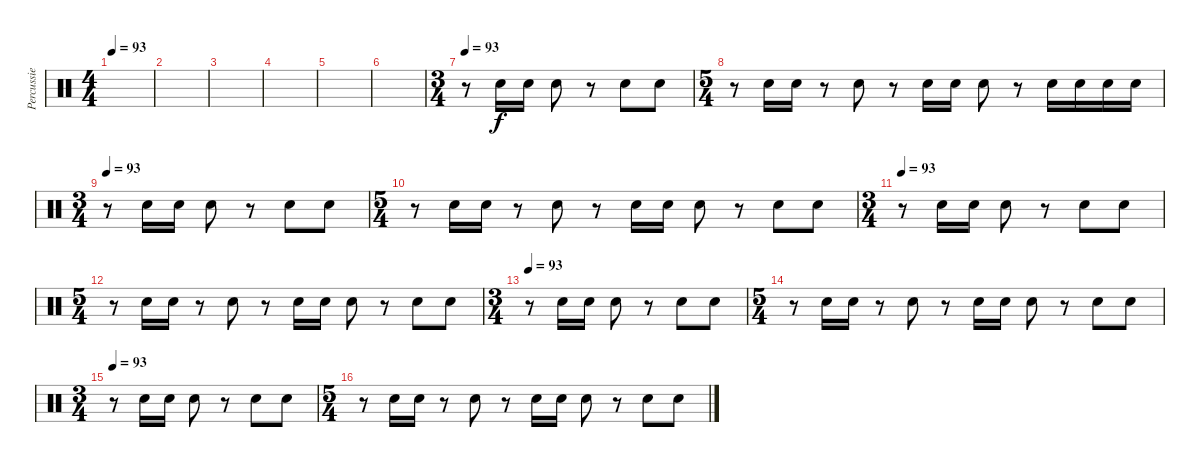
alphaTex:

\track ("Percussie" "Percussie") {instrument percussion}
\staff {score}
\articulation defaults
\ts (4 4)
\tempo 93
\clef neutral
\ks c
|
|
|
|
|
|
\ts (3 4)
\tempo 93
r.8 "Hand Clap (hit)".16 "Hand Clap (hit)".16 "Hand Clap (hit)".8 r.8 "Hand Clap (hit)".8 "Hand Clap (hit)".8 |
\ts (5 4)
r.8 "Hand Clap (hit)".16 "Hand Clap (hit)".16 r.8 "Hand Clap (hit)".8 r.8 "Hand Clap (hit)".16 "Hand Clap (hit)".16 "Hand Clap (hit)".8 r.8 "Hand Clap (hit)".16 "Hand Clap (hit)".16 "Hand Clap (hit)".16 "Hand Clap (hit)".16 |
\ts (3 4)
\tempo 93
r.8 "Hand Clap (hit)".16 "Hand Clap (hit)".16 "Hand Clap (hit)".8 r.8 "Hand Clap (hit)".8 "Hand Clap (hit)".8 |
\ts (5 4)
r.8 "Hand Clap (hit)".16 "Hand Clap (hit)".16 r.8 "Hand Clap (hit)".8 r.8 "Hand Clap (hit)".16 "Hand Clap (hit)".16 "Hand Clap (hit)".8 r.8 "Hand Clap (hit)".8 "Hand Clap (hit)".8 |
\ts (3 4)
\tempo 93
r.8 "Hand Clap (hit)".16 "Hand Clap (hit)".16 "Hand Clap (hit)".8 r.8 "Hand Clap (hit)".8 "Hand Clap (hit)".8 |
\ts (5 4)
r.8 "Hand Clap (hit)".16 "Hand Clap (hit)".16 r.8 "Hand Clap (hit)".8 r.8 "Hand Clap (hit)".16 "Hand Clap (hit)".16 "Hand Clap (hit)".8 r.8 "Hand Clap (hit)".8 "Hand Clap (hit)".8 |
\ts (3 4)
\tempo 93
r.8 "Hand Clap (hit)".16 "Hand Clap (hit)".16 "Hand Clap (hit)".8 r.8 "Hand Clap (hit)".8 "Hand Clap (hit)".8 |
\ts (5 4)
r.8 "Hand Clap (hit)".16 "Hand Clap (hit)".16 r.8 "Hand Clap (hit)".8 r.8 "Hand Clap (hit)".16 "Hand Clap (hit)".16 "Hand Clap (hit)".8 r.8 "Hand Clap (hit)".8 "Hand Clap (hit)".8 |
\ts (3 4)
\tempo 93
r.8 "Hand Clap (hit)".16 "Hand Clap (hit)".16 "Hand Clap (hit)".8 r.8 "Hand Clap (hit)".8 "Hand Clap (hit)".8 |
\ts (5 4)
r.8 "Hand Clap (hit)".16 "Hand Clap (hit)".16 r.8 "Hand Clap (hit)".8 r.8 "Hand Clap (hit)".16 "Hand Clap (hit)".16 "Hand Clap (hit)".8 r.8 "Hand Clap (hit)".8 "Hand Clap (hit)".8
